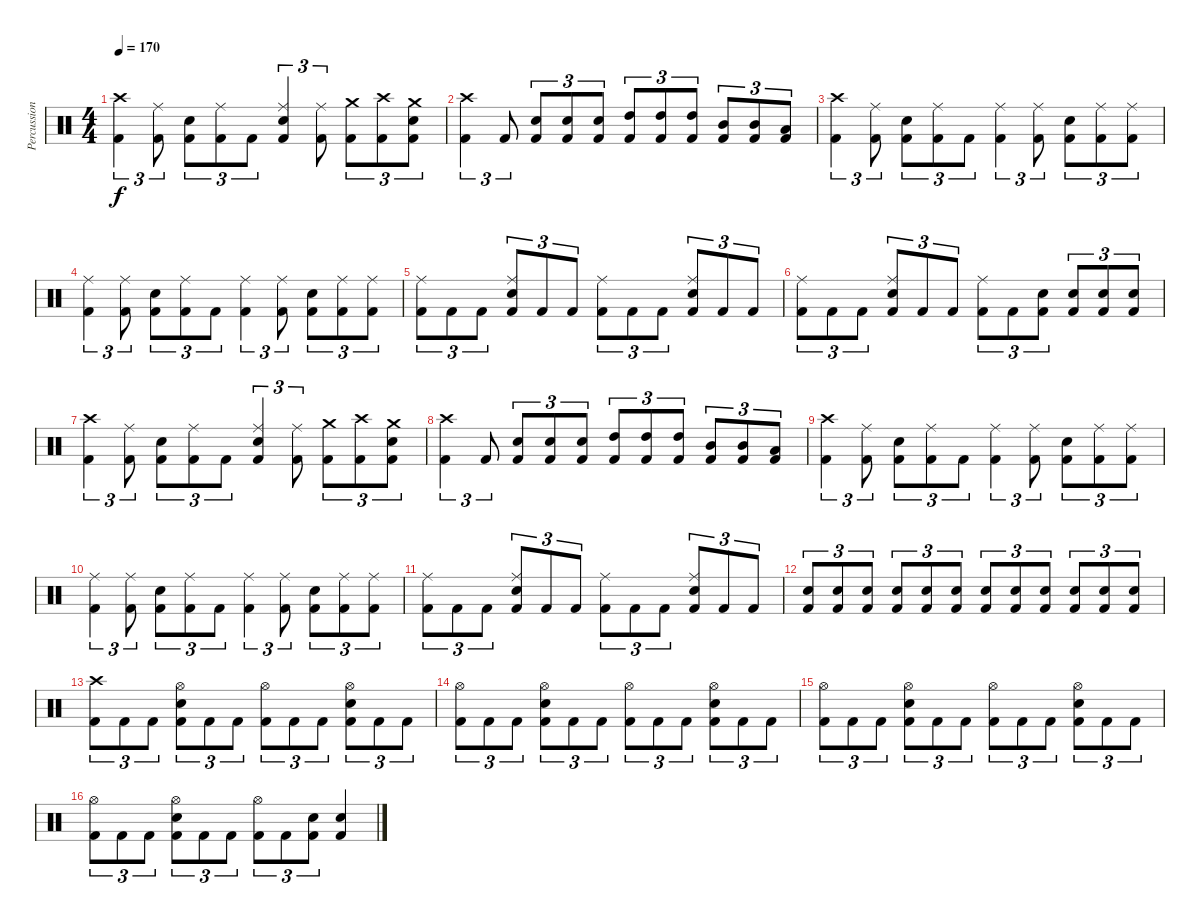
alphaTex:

\track ("Percussioni" "Percussion") {instrument percussion}
\staff {score}
\articulation defaults
\ts (4 4)
\tempo 170
\clef neutral
\ks c
("Crash high (hit)" "Kick (hit) 2").4{tu (3 2) dy f} ("Ride (middle)" "Kick (hit) 2").8{tu (3 2)} ("Snare (hit) 2" "Kick (hit) 2").8{tu (3 2)} ("Ride (middle)" "Kick (hit) 2").8{tu (3 2)} "Kick (hit) 2".8{tu (3 2)} ("Ride (middle)" "Snare (hit) 2" "Kick (hit) 2").4{tu (3 2)} ("Ride (middle)" "Kick (hit) 2").8{tu (3 2)} ("Crash medium (hit)" "Kick (hit) 2").8{tu (3 2)} ("Crash high (hit)" "Kick (hit) 2").8{tu (3 2)} ("Crash medium (hit)" "Snare (hit) 2" "Kick (hit) 2").8{tu (3 2)} |
("Crash high (hit)" "Kick (hit) 2").4{tu (3 2)} "Kick (hit) 2".8{tu (3 2)} ("Snare (hit) 2" "Kick (hit) 2").8{tu (3 2)} ("Snare (hit) 2" "Kick (hit) 2").8{tu (3 2)} ("Snare (hit) 2" "Kick (hit) 2").8{tu (3 2)} ("High Tom (hit)" "Kick (hit) 2").8{tu (3 2)} ("High Tom (hit)" "Kick (hit) 2").8{tu (3 2)} ("High Tom (hit)" "Kick (hit) 2").8{tu (3 2)} ("Mid Tom (hit)" "Kick (hit) 2").8{tu (3 2)} ("Mid Tom (hit)" "Kick (hit) 2").8{tu (3 2)} ("Low Tom (hit)" "Kick (hit) 2").8{tu (3 2)} |
("Crash high (hit)" "Kick (hit) 2").4{tu (3 2)} ("Ride (middle)" "Kick (hit) 2").8{tu (3 2)} ("Snare (hit) 2" "Kick (hit) 2").8{tu (3 2)} ("Ride (middle)" "Kick (hit) 2").8{tu (3 2)} "Kick (hit) 2".8{tu (3 2)} ("Ride (middle)" "Kick (hit) 2").4{tu (3 2)} ("Ride (middle)" "Kick (hit) 2").8{tu (3 2)} ("Snare (hit) 2" "Kick (hit) 2").8{tu (3 2)} ("Ride (middle)" "Kick (hit) 2").8{tu (3 2)} ("Ride (middle)" "Kick (hit) 2").8{tu (3 2)} |
("Ride (middle)" "Kick (hit) 2").4{tu (3 2)} ("Ride (middle)" "Kick (hit) 2").8{tu (3 2)} ("Snare (hit) 2" "Kick (hit) 2").8{tu (3 2)} ("Ride (middle)" "Kick (hit) 2").8{tu (3 2)} "Kick (hit) 2".8{tu (3 2)} ("Ride (middle)" "Kick (hit) 2").4{tu (3 2)} ("Ride (middle)" "Kick (hit) 2").8{tu (3 2)} ("Snare (hit) 2" "Kick (hit) 2").8{tu (3 2)} ("Ride (middle)" "Kick (hit) 2").8{tu (3 2)} ("Ride (middle)" "Kick (hit) 2").8{tu (3 2)} |
("Ride (middle)" "Kick (hit) 2").8{tu (3 2)} "Kick (hit) 2".8{tu (3 2)} "Kick (hit) 2".8{tu (3 2)} ("Ride (middle)" "Snare (hit) 2" "Kick (hit) 2").8{tu (3 2)} "Kick (hit) 2".8{tu (3 2)} "Kick (hit) 2".8{tu (3 2)} ("Ride (middle)" "Kick (hit) 2").8{tu (3 2)} "Kick (hit) 2".8{tu (3 2)} "Kick (hit) 2".8{tu (3 2)} ("Ride (middle)" "Snare (hit) 2" "Kick (hit) 2").8{tu (3 2)} "Kick (hit) 2".8{tu (3 2)} "Kick (hit) 2".8{tu (3 2)} |
("Ride (middle)" "Kick (hit) 2").8{tu (3 2)} "Kick (hit) 2".8{tu (3 2)} "Kick (hit) 2".8{tu (3 2)} ("Ride (middle)" "Snare (hit) 2" "Kick (hit) 2").8{tu (3 2)} "Kick (hit) 2".8{tu (3 2)} "Kick (hit) 2".8{tu (3 2)} ("Ride (middle)" "Kick (hit) 2").8{tu (3 2)} "Kick (hit) 2".8{tu (3 2)} ("Snare (hit) 2" "Kick (hit) 2").8{tu (3 2)} ("Snare (hit) 2" "Kick (hit) 2").8{tu (3 2)} ("Snare (hit) 2" "Kick (hit) 2").8{tu (3 2)} ("Snare (hit) 2" "Kick (hit) 2").8{tu (3 2)} |
("Crash high (hit)" "Kick (hit) 2").4{tu (3 2)} ("Ride (middle)" "Kick (hit) 2").8{tu (3 2)} ("Snare (hit) 2" "Kick (hit) 2").8{tu (3 2)} ("Ride (middle)" "Kick (hit) 2").8{tu (3 2)} "Kick (hit) 2".8{tu (3 2)} ("Ride (middle)" "Snare (hit) 2" "Kick (hit) 2").4{tu (3 2)} ("Ride (middle)" "Kick (hit) 2").8{tu (3 2)} ("Crash medium (hit)" "Kick (hit) 2").8{tu (3 2)} ("Crash high (hit)" "Kick (hit) 2").8{tu (3 2)} ("Crash medium (hit)" "Snare (hit) 2" "Kick (hit) 2").8{tu (3 2)} |
("Crash high (hit)" "Kick (hit) 2").4{tu (3 2)} "Kick (hit) 2".8{tu (3 2)} ("Snare (hit) 2" "Kick (hit) 2").8{tu (3 2)} ("Snare (hit) 2" "Kick (hit) 2").8{tu (3 2)} ("Snare (hit) 2" "Kick (hit) 2").8{tu (3 2)} ("High Tom (hit)" "Kick (hit) 2").8{tu (3 2)} ("High Tom (hit)" "Kick (hit) 2").8{tu (3 2)} ("High Tom (hit)" "Kick (hit) 2").8{tu (3 2)} ("Mid Tom (hit)" "Kick (hit) 2").8{tu (3 2)} ("Mid Tom (hit)" "Kick (hit) 2").8{tu (3 2)} ("Low Tom (hit)" "Kick (hit) 2").8{tu (3 2)} |
("Crash high (hit)" "Kick (hit) 2").4{tu (3 2)} ("Ride (middle)" "Kick (hit) 2").8{tu (3 2)} ("Snare (hit) 2" "Kick (hit) 2").8{tu (3 2)} ("Ride (middle)" "Kick (hit) 2").8{tu (3 2)} "Kick (hit) 2".8{tu (3 2)} ("Ride (middle)" "Kick (hit) 2").4{tu (3 2)} ("Ride (middle)" "Kick (hit) 2").8{tu (3 2)} ("Snare (hit) 2" "Kick (hit) 2").8{tu (3 2)} ("Ride (middle)" "Kick (hit) 2").8{tu (3 2)} ("Ride (middle)" "Kick (hit) 2").8{tu (3 2)} |
("Ride (middle)" "Kick (hit) 2").4{tu (3 2)} ("Ride (middle)" "Kick (hit) 2").8{tu (3 2)} ("Snare (hit) 2" "Kick (hit) 2").8{tu (3 2)} ("Ride (middle)" "Kick (hit) 2").8{tu (3 2)} "Kick (hit) 2".8{tu (3 2)} ("Ride (middle)" "Kick (hit) 2").4{tu (3 2)} ("Ride (middle)" "Kick (hit) 2").8{tu (3 2)} ("Snare (hit) 2" "Kick (hit) 2").8{tu (3 2)} ("Ride (middle)" "Kick (hit) 2").8{tu (3 2)} ("Ride (middle)" "Kick (hit) 2").8{tu (3 2)} |
("Ride (middle)" "Kick (hit) 2").8{tu (3 2)} "Kick (hit) 2".8{tu (3 2)} "Kick (hit) 2".8{tu (3 2)} ("Ride (middle)" "Snare (hit) 2" "Kick (hit) 2").8{tu (3 2)} "Kick (hit) 2".8{tu (3 2)} "Kick (hit) 2".8{tu (3 2)} ("Ride (middle)" "Kick (hit) 2").8{tu (3 2)} "Kick (hit) 2".8{tu (3 2)} "Kick (hit) 2".8{tu (3 2)} ("Ride (middle)" "Snare (hit) 2" "Kick (hit) 2").8{tu (3 2)} "Kick (hit) 2".8{tu (3 2)} "Kick (hit) 2".8{tu (3 2)} |
("Snare (hit) 2" "Kick (hit) 2").8{tu (3 2)} ("Snare (hit) 2" "Kick (hit) 2").8{tu (3 2)} ("Snare (hit) 2" "Kick (hit) 2").8{tu (3 2)} ("Snare (hit) 2" "Kick (hit) 2").8{tu (3 2)} ("Snare (hit) 2" "Kick (hit) 2").8{tu (3 2)} ("Snare (hit) 2" "Kick (hit) 2").8{tu (3 2)} ("Snare (hit) 2" "Kick (hit) 2").8{tu (3 2)} ("Snare (hit) 2" "Kick (hit) 2").8{tu (3 2)} ("Snare (hit) 2" "Kick (hit) 2").8{tu (3 2)} ("Snare (hit) 2" "Kick (hit) 2").8{tu (3 2)} ("Snare (hit) 2" "Kick (hit) 2").8{tu (3 2)} ("Snare (hit) 2" "Kick (hit) 2").8{tu (3 2)} |
("Crash high (hit)" "Kick (hit) 2").8{tu (3 2)} "Kick (hit) 2".8{tu (3 2)} "Kick (hit) 2".8{tu (3 2)} ("Hi-Hat (open)" "Snare (hit) 2" "Kick (hit) 2").8{tu (3 2)} "Kick (hit) 2".8{tu (3 2)} "Kick (hit) 2".8{tu (3 2)} ("Hi-Hat (open)" "Kick (hit) 2").8{tu (3 2)} "Kick (hit) 2".8{tu (3 2)} "Kick (hit) 2".8{tu (3 2)} ("Hi-Hat (open)" "Snare (hit) 2" "Kick (hit) 2").8{tu (3 2)} "Kick (hit) 2".8{tu (3 2)} "Kick (hit) 2".8{tu (3 2)} |
("Hi-Hat (open)" "Kick (hit) 2").8{tu (3 2)} "Kick (hit) 2".8{tu (3 2)} "Kick (hit) 2".8{tu (3 2)} ("Hi-Hat (open)" "Snare (hit) 2" "Kick (hit) 2").8{tu (3 2)} "Kick (hit) 2".8{tu (3 2)} "Kick (hit) 2".8{tu (3 2)} ("Hi-Hat (open)" "Kick (hit) 2").8{tu (3 2)} "Kick (hit) 2".8{tu (3 2)} "Kick (hit) 2".8{tu (3 2)} ("Hi-Hat (open)" "Snare (hit) 2" "Kick (hit) 2").8{tu (3 2)} "Kick (hit) 2".8{tu (3 2)} "Kick (hit) 2".8{tu (3 2)} |
("Hi-Hat (open)" "Kick (hit) 2").8{tu (3 2)} "Kick (hit) 2".8{tu (3 2)} "Kick (hit) 2".8{tu (3 2)} ("Hi-Hat (open)" "Snare (hit) 2" "Kick (hit) 2").8{tu (3 2)} "Kick (hit) 2".8{tu (3 2)} "Kick (hit) 2".8{tu (3 2)} ("Hi-Hat (open)" "Kick (hit) 2").8{tu (3 2)} "Kick (hit) 2".8{tu (3 2)} "Kick (hit) 2".8{tu (3 2)} ("Hi-Hat (open)" "Snare (hit) 2" "Kick (hit) 2").8{tu (3 2)} "Kick (hit) 2".8{tu (3 2)} "Kick (hit) 2".8{tu (3 2)} |
("Hi-Hat (open)" "Kick (hit) 2").8{tu (3 2)} "Kick (hit) 2".8{tu (3 2)} "Kick (hit) 2".8{tu (3 2)} ("Hi-Hat (open)" "Snare (hit) 2" "Kick (hit) 2").8{tu (3 2)} "Kick (hit) 2".8{tu (3 2)} "Kick (hit) 2".8{tu (3 2)} ("Hi-Hat (open)" "Kick (hit) 2").8{tu (3 2)} "Kick (hit) 2".8{tu (3 2)} ("Snare (hit) 2" "Kick (hit) 2").8{tu (3 2)} ("Snare (hit) 2" "Kick (hit) 2").4
